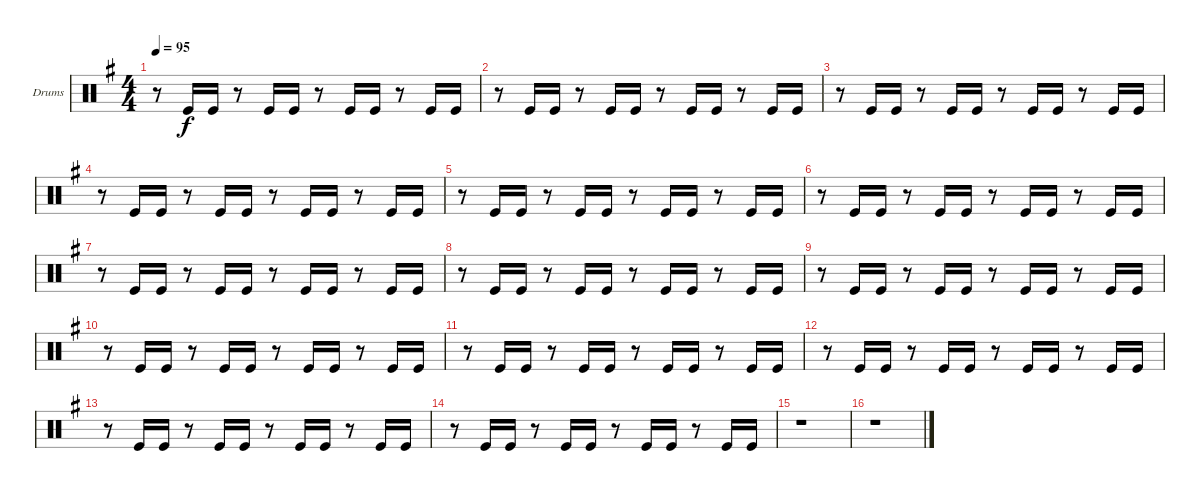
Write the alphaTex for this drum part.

\bracketExtendMode groupsimilarinstruments
\firstSystemTrackNameOrientation horizontal
\otherSystemsTrackNameOrientation horizontal
\track ("Drumkit" "Drums") {instrument percussion}
\staff {score}
\articulation defaults
\ts (4 4)
\tempo 95
\clef neutral
\ks g
r.8{dy f} "Kick (hit)".16 "Kick (hit)".16 r.8 "Kick (hit)".16 "Kick (hit)".16 r.8 "Kick (hit)".16 "Kick (hit)".16 r.8 "Kick (hit)".16 "Kick (hit)".16 |
r.8 "Kick (hit)".16 "Kick (hit)".16 r.8 "Kick (hit)".16 "Kick (hit)".16 r.8 "Kick (hit)".16 "Kick (hit)".16 r.8 "Kick (hit)".16 "Kick (hit)".16 |
r.8 "Kick (hit)".16 "Kick (hit)".16 r.8 "Kick (hit)".16 "Kick (hit)".16 r.8 "Kick (hit)".16 "Kick (hit)".16 r.8 "Kick (hit)".16 "Kick (hit)".16 |
r.8 "Kick (hit)".16 "Kick (hit)".16 r.8 "Kick (hit)".16 "Kick (hit)".16 r.8 "Kick (hit)".16 "Kick (hit)".16 r.8 "Kick (hit)".16 "Kick (hit)".16 |
r.8 "Kick (hit)".16 "Kick (hit)".16 r.8 "Kick (hit)".16 "Kick (hit)".16 r.8 "Kick (hit)".16 "Kick (hit)".16 r.8 "Kick (hit)".16 "Kick (hit)".16 |
r.8 "Kick (hit)".16 "Kick (hit)".16 r.8 "Kick (hit)".16 "Kick (hit)".16 r.8 "Kick (hit)".16 "Kick (hit)".16 r.8 "Kick (hit)".16 "Kick (hit)".16 |
r.8 "Kick (hit)".16 "Kick (hit)".16 r.8 "Kick (hit)".16 "Kick (hit)".16 r.8 "Kick (hit)".16 "Kick (hit)".16 r.8 "Kick (hit)".16 "Kick (hit)".16 |
r.8 "Kick (hit)".16 "Kick (hit)".16 r.8 "Kick (hit)".16 "Kick (hit)".16 r.8 "Kick (hit)".16 "Kick (hit)".16 r.8 "Kick (hit)".16 "Kick (hit)".16 |
r.8 "Kick (hit)".16 "Kick (hit)".16 r.8 "Kick (hit)".16 "Kick (hit)".16 r.8 "Kick (hit)".16 "Kick (hit)".16 r.8 "Kick (hit)".16 "Kick (hit)".16 |
r.8 "Kick (hit)".16 "Kick (hit)".16 r.8 "Kick (hit)".16 "Kick (hit)".16 r.8 "Kick (hit)".16 "Kick (hit)".16 r.8 "Kick (hit)".16 "Kick (hit)".16 |
r.8 "Kick (hit)".16 "Kick (hit)".16 r.8 "Kick (hit)".16 "Kick (hit)".16 r.8 "Kick (hit)".16 "Kick (hit)".16 r.8 "Kick (hit)".16 "Kick (hit)".16 |
r.8 "Kick (hit)".16 "Kick (hit)".16 r.8 "Kick (hit)".16 "Kick (hit)".16 r.8 "Kick (hit)".16 "Kick (hit)".16 r.8 "Kick (hit)".16 "Kick (hit)".16 |
r.8 "Kick (hit)".16 "Kick (hit)".16 r.8 "Kick (hit)".16 "Kick (hit)".16 r.8 "Kick (hit)".16 "Kick (hit)".16 r.8 "Kick (hit)".16 "Kick (hit)".16 |
r.8 "Kick (hit)".16 "Kick (hit)".16 r.8 "Kick (hit)".16 "Kick (hit)".16 r.8 "Kick (hit)".16 "Kick (hit)".16 r.8 "Kick (hit)".16 "Kick (hit)".16 |
r.1 |
r.1
